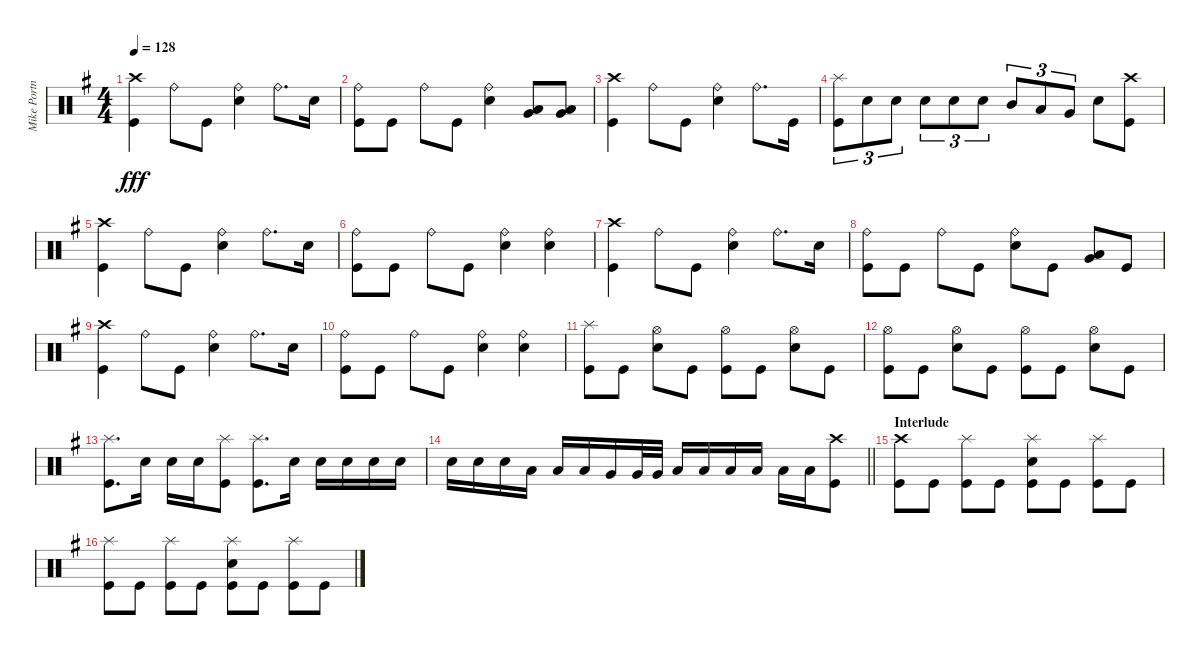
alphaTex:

\track ("Mike Portnoy" "Mike Portn") {instrument percussion}
\staff {score}
\articulation defaults
\ts (4 4)
\tempo 128
\clef neutral
\ks eminor
("Kick (hit)" "Crash high (hit)").4{dy fff} "Ride (bell)".8 "Kick (hit)".8 ("Snare (hit) 2" "Ride (bell)").4 "Ride (bell)".8{d} "Snare (hit) 2".16 |
("Kick (hit)" "Ride (bell)").8 "Kick (hit)".8 "Ride (bell)".8 "Kick (hit)".8 ("Snare (hit) 2" "Ride (bell)").4 ("Low Tom (hit)" "Very Low Tom (hit)").8 ("Very Low Tom (hit)" "Low Tom (hit)").8 |
("Crash high (hit)" "Kick (hit)").4 "Ride (bell)".8 "Kick (hit)".8 ("Snare (hit) 2" "Ride (bell)").4 "Ride (bell)".8{d} "Kick (hit)".16 |
("Kick (hit)" "Splash (hit)").8{tu (3 2)} "Snare (hit) 2".8{tu (3 2)} "Snare (hit) 2".8{tu (3 2)} "Snare (hit) 2".8{tu (3 2)} "Snare (hit) 2".8{tu (3 2)} "Snare (hit) 2".8{tu (3 2)} "Mid Tom (hit)".8{tu (3 2)} "Low Tom (hit)".8{tu (3 2)} "Very Low Tom (hit)".8{tu (3 2)} "Snare (hit) 2".8 ("Kick (hit)" "Crash high (hit)").8 |
("Kick (hit)" "Crash high (hit)").4 "Ride (bell)".8 "Kick (hit)".8 ("Snare (hit) 2" "Ride (bell)").4 "Ride (bell)".8{d} "Snare (hit) 2".16 |
("Kick (hit)" "Ride (bell)").8 "Kick (hit)".8 "Ride (bell)".8 "Kick (hit)".8 ("Snare (hit) 2" "Ride (bell)").4 ("Snare (hit) 2" "Ride (bell)").4 |
("Kick (hit)" "Crash high (hit)").4 "Ride (bell)".8 "Kick (hit)".8 ("Snare (hit) 2" "Ride (bell)").4 "Ride (bell)".8{d} "Snare (hit) 2".16 |
("Kick (hit)" "Ride (bell)").8 "Kick (hit)".8 "Ride (bell)".8 "Kick (hit)".8 ("Snare (hit) 2" "Ride (bell)").8 "Kick (hit)".8 ("Low Tom (hit)" "Very Low Tom (hit)").8 "Kick (hit)".8 |
("Kick (hit)" "Crash high (hit)").4 "Ride (bell)".8 "Kick (hit)".8 ("Snare (hit) 2" "Ride (bell)").4 "Ride (bell)".8{d} "Snare (hit) 2".16 |
("Kick (hit)" "Ride (bell)").8 "Kick (hit)".8 "Ride (bell)".8 "Kick (hit)".8 ("Snare (hit) 2" "Ride (bell)").4 ("Snare (hit) 2" "Ride (bell)").4 |
("Kick (hit)" "Splash (hit)").8 "Kick (hit)".8 ("Snare (hit) 2" "Hi-Hat (open)").8 "Kick (hit)".8 ("Kick (hit)" "Hi-Hat (open)").8 "Kick (hit)".8 ("Snare (hit) 2" "Hi-Hat (open)").8 "Kick (hit)".8 |
("Kick (hit)" "Hi-Hat (open)").8 "Kick (hit)".8 ("Snare (hit) 2" "Hi-Hat (open)").8 "Kick (hit)".8 ("Kick (hit)" "Hi-Hat (open)").8 "Kick (hit)".8 ("Snare (hit) 2" "Hi-Hat (open)").8 "Kick (hit)".8 |
("Kick (hit)" "Splash (hit)").8{d} "Snare (hit) 2".16 "Snare (hit) 2".16 "Snare (hit) 2".16 ("Kick (hit)" "Splash (hit)").8 ("Kick (hit)" "Splash (hit)").8{d} "Snare (hit) 2".16 "Snare (hit) 2".16 "Snare (hit) 2".16 "Snare (hit) 2".16 "Snare (hit) 2".16 |
\barLineRight lightlight "Snare (hit) 2".16 "Snare (hit) 2".16 "Snare (hit) 2".16 "Low Tom (hit)".16 "Low Tom (hit)".16 "Low Tom (hit)".16 "Very Low Tom (hit)".16 "Very Low Tom (hit)".32 "Very Low Tom (hit)".32 "Low Floor Tom (hit)".16 "Low Floor Tom (hit)".16 "Low Floor Tom (hit)".16 "Low Floor Tom (hit)".16 "Low Floor Tom (hit)".16 "Low Floor Tom (hit)".16
("Kick (hit)" "Crash high (hit)").8 |
\section ("" "Interlude")
("Kick (hit)" "Crash high (hit)").8 "Kick (hit)".8 ("Kick (hit)" "Splash (hit)").8 "Kick (hit)".8 ("Kick (hit)" "Splash (hit)" "Snare (hit) 2").8 "Kick (hit)".8 ("Kick (hit)" "Splash (hit)").8 "Kick (hit)".8 |
("Kick (hit)" "Splash (hit)").8 "Kick (hit)".8 ("Kick (hit)" "Splash (hit)").8 "Kick (hit)".8 ("Kick (hit)" "Splash (hit)" "Snare (hit) 2").8 "Kick (hit)".8 ("Kick (hit)" "Splash (hit)").8 "Kick (hit)".8
